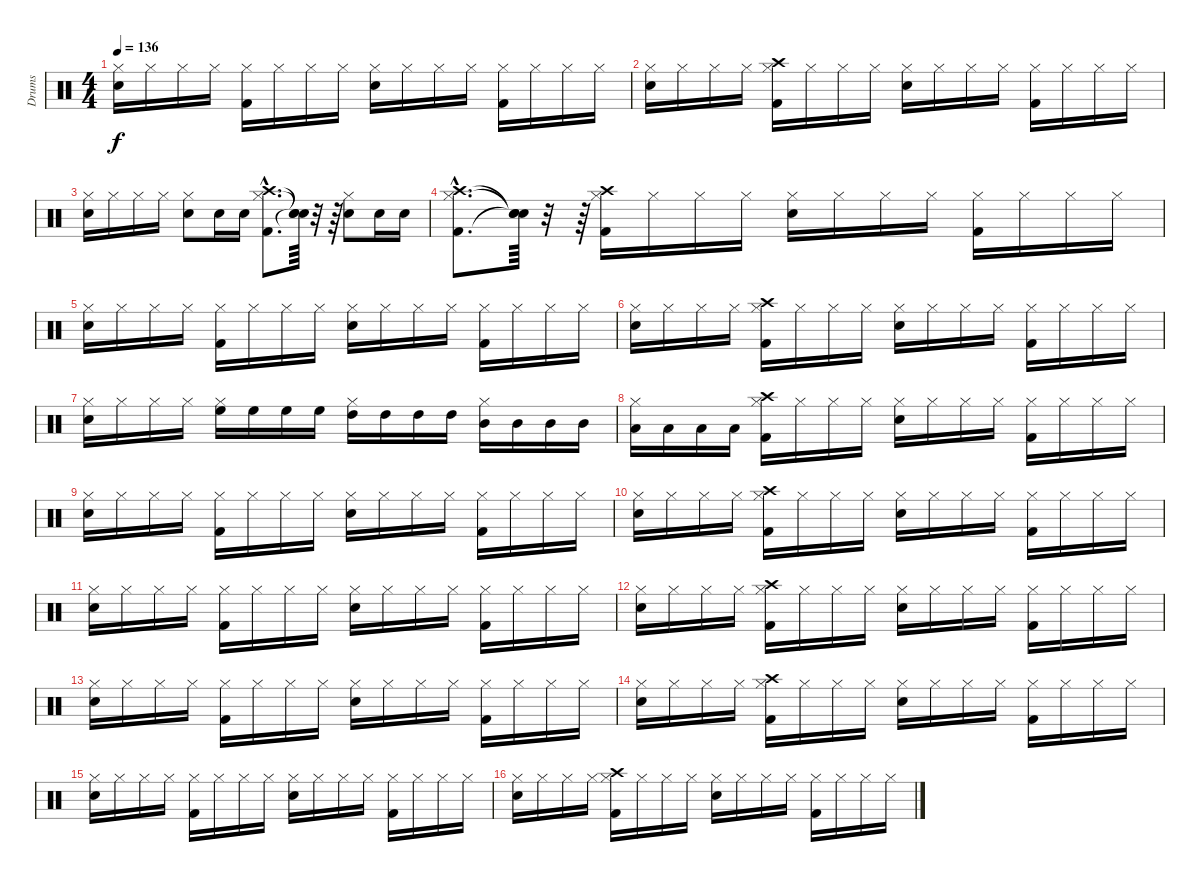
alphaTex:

\track ("Drums" "Drums") {instrument percussion}
\staff {score}
\articulation defaults
\ts (4 4)
\tempo 136
\clef neutral
\ks c
("Snare (hit) 2" "Hi-Hat (closed)").16{dy f} "Hi-Hat (closed)".16 "Hi-Hat (closed)".16 "Hi-Hat (closed)".16 ("Kick (hit) 2" "Hi-Hat (closed)").16 "Hi-Hat (closed)".16 "Hi-Hat (closed)".16 "Hi-Hat (closed)".16 ("Snare (hit) 2" "Hi-Hat (closed)").16 "Hi-Hat (closed)".16 "Hi-Hat (closed)".16 "Hi-Hat (closed)".16 ("Kick (hit) 2" "Hi-Hat (closed)").16 "Hi-Hat (closed)".16 "Hi-Hat (closed)".16 "Hi-Hat (closed)".16 |
("Snare (hit) 2" "Hi-Hat (closed)").16 "Hi-Hat (closed)".16 "Hi-Hat (closed)".16 "Hi-Hat (closed)".16 ("Kick (hit) 2" "Hi-Hat (closed)" "Crash high (hit)").16 "Hi-Hat (closed)".16 "Hi-Hat (closed)".16 "Hi-Hat (closed)".16 ("Snare (hit) 2" "Hi-Hat (closed)").16 "Hi-Hat (closed)".16 "Hi-Hat (closed)".16 "Hi-Hat (closed)".16 ("Kick (hit) 2" "Hi-Hat (closed)").16 "Hi-Hat (closed)".16 "Hi-Hat (closed)".16 "Hi-Hat (closed)".16 |
("Snare (hit) 2" "Hi-Hat (closed)").16 "Hi-Hat (closed)".16 "Hi-Hat (closed)".16 "Hi-Hat (closed)".16 ("Snare (hit) 2" "Hi-Hat (closed)").8 "Snare (hit) 2".16 "Snare (hit) 2".16 ("Kick (hit) 2"{hac} "Hi-Hat (closed)"{hac} "Crash high (hit)"{hac}).8{d} ("Snare (hit)"{t} "Snare (hit)"{t} "Snare (hit)"{t}).64 r.32 r.64 ("Snare (hit) 2" "Hi-Hat (closed)").8 "Snare (hit) 2".16 "Snare (hit) 2".16 |
("Kick (hit) 2"{hac} "Hi-Hat (closed)"{hac} "Crash high (hit)"{hac}).8{d} ("Snare (hit)"{t} "Snare (hit)"{t} "Snare (hit)"{t}).64 r.32 r.64 ("Kick (hit) 2" "Hi-Hat (closed)" "Crash high (hit)").16 "Hi-Hat (closed)".16 "Hi-Hat (closed)".16 "Hi-Hat (closed)".16 ("Snare (hit) 2" "Hi-Hat (closed)").16 "Hi-Hat (closed)".16 "Hi-Hat (closed)".16 "Hi-Hat (closed)".16 ("Kick (hit) 2" "Hi-Hat (closed)").16 "Hi-Hat (closed)".16 "Hi-Hat (closed)".16 "Hi-Hat (closed)".16 |
("Snare (hit) 2" "Hi-Hat (closed)").16 "Hi-Hat (closed)".16 "Hi-Hat (closed)".16 "Hi-Hat (closed)".16 ("Kick (hit) 2" "Hi-Hat (closed)").16 "Hi-Hat (closed)".16 "Hi-Hat (closed)".16 "Hi-Hat (closed)".16 ("Snare (hit) 2" "Hi-Hat (closed)").16 "Hi-Hat (closed)".16 "Hi-Hat (closed)".16 "Hi-Hat (closed)".16 ("Kick (hit) 2" "Hi-Hat (closed)").16 "Hi-Hat (closed)".16 "Hi-Hat (closed)".16 "Hi-Hat (closed)".16 |
("Snare (hit) 2" "Hi-Hat (closed)").16 "Hi-Hat (closed)".16 "Hi-Hat (closed)".16 "Hi-Hat (closed)".16 ("Kick (hit) 2" "Hi-Hat (closed)" "Crash high (hit)").16 "Hi-Hat (closed)".16 "Hi-Hat (closed)".16 "Hi-Hat (closed)".16 ("Snare (hit) 2" "Hi-Hat (closed)").16 "Hi-Hat (closed)".16 "Hi-Hat (closed)".16 "Hi-Hat (closed)".16 ("Kick (hit) 2" "Hi-Hat (closed)").16 "Hi-Hat (closed)".16 "Hi-Hat (closed)".16 "Hi-Hat (closed)".16 |
("Snare (hit) 2" "Hi-Hat (closed)").16 "Hi-Hat (closed)".16 "Hi-Hat (closed)".16 "Hi-Hat (closed)".16 ("Hi-Hat (closed)" "High Floor Tom (hit)").16 "High Floor Tom (hit)".16 "High Floor Tom (hit)".16 "High Floor Tom (hit)".16 ("Hi-Hat (closed)" "High Tom (hit)").16 "High Tom (hit)".16 "High Tom (hit)".16 "High Tom (hit)".16 ("Hi-Hat (closed)" "Mid Tom (hit)").16 "Mid Tom (hit)".16 "Mid Tom (hit)".16 "Mid Tom (hit)".16 |
("Hi-Hat (closed)" "Low Tom (hit)").16 "Low Tom (hit)".16 "Low Tom (hit)".16 "Low Tom (hit)".16 ("Kick (hit) 2" "Hi-Hat (closed)" "Crash high (hit)").16 "Hi-Hat (closed)".16 "Hi-Hat (closed)".16 "Hi-Hat (closed)".16 ("Snare (hit) 2" "Hi-Hat (closed)").16 "Hi-Hat (closed)".16 "Hi-Hat (closed)".16 "Hi-Hat (closed)".16 ("Kick (hit) 2" "Hi-Hat (closed)").16 "Hi-Hat (closed)".16 "Hi-Hat (closed)".16 "Hi-Hat (closed)".16 |
("Snare (hit) 2" "Hi-Hat (closed)").16 "Hi-Hat (closed)".16 "Hi-Hat (closed)".16 "Hi-Hat (closed)".16 ("Kick (hit) 2" "Hi-Hat (closed)").16 "Hi-Hat (closed)".16 "Hi-Hat (closed)".16 "Hi-Hat (closed)".16 ("Snare (hit) 2" "Hi-Hat (closed)").16 "Hi-Hat (closed)".16 "Hi-Hat (closed)".16 "Hi-Hat (closed)".16 ("Kick (hit) 2" "Hi-Hat (closed)").16 "Hi-Hat (closed)".16 "Hi-Hat (closed)".16 "Hi-Hat (closed)".16 |
("Snare (hit) 2" "Hi-Hat (closed)").16 "Hi-Hat (closed)".16 "Hi-Hat (closed)".16 "Hi-Hat (closed)".16 ("Kick (hit) 2" "Hi-Hat (closed)" "Crash high (hit)").16 "Hi-Hat (closed)".16 "Hi-Hat (closed)".16 "Hi-Hat (closed)".16 ("Snare (hit) 2" "Hi-Hat (closed)").16 "Hi-Hat (closed)".16 "Hi-Hat (closed)".16 "Hi-Hat (closed)".16 ("Kick (hit) 2" "Hi-Hat (closed)").16 "Hi-Hat (closed)".16 "Hi-Hat (closed)".16 "Hi-Hat (closed)".16 |
("Snare (hit) 2" "Hi-Hat (closed)").16 "Hi-Hat (closed)".16 "Hi-Hat (closed)".16 "Hi-Hat (closed)".16 ("Kick (hit) 2" "Hi-Hat (closed)").16 "Hi-Hat (closed)".16 "Hi-Hat (closed)".16 "Hi-Hat (closed)".16 ("Snare (hit) 2" "Hi-Hat (closed)").16 "Hi-Hat (closed)".16 "Hi-Hat (closed)".16 "Hi-Hat (closed)".16 ("Kick (hit) 2" "Hi-Hat (closed)").16 "Hi-Hat (closed)".16 "Hi-Hat (closed)".16 "Hi-Hat (closed)".16 |
("Snare (hit) 2" "Hi-Hat (closed)").16 "Hi-Hat (closed)".16 "Hi-Hat (closed)".16 "Hi-Hat (closed)".16 ("Kick (hit) 2" "Hi-Hat (closed)" "Crash high (hit)").16 "Hi-Hat (closed)".16 "Hi-Hat (closed)".16 "Hi-Hat (closed)".16 ("Snare (hit) 2" "Hi-Hat (closed)").16 "Hi-Hat (closed)".16 "Hi-Hat (closed)".16 "Hi-Hat (closed)".16 ("Kick (hit) 2" "Hi-Hat (closed)").16 "Hi-Hat (closed)".16 "Hi-Hat (closed)".16 "Hi-Hat (closed)".16 |
("Snare (hit) 2" "Hi-Hat (closed)").16 "Hi-Hat (closed)".16 "Hi-Hat (closed)".16 "Hi-Hat (closed)".16 ("Kick (hit) 2" "Hi-Hat (closed)").16 "Hi-Hat (closed)".16 "Hi-Hat (closed)".16 "Hi-Hat (closed)".16 ("Snare (hit) 2" "Hi-Hat (closed)").16 "Hi-Hat (closed)".16 "Hi-Hat (closed)".16 "Hi-Hat (closed)".16 ("Kick (hit) 2" "Hi-Hat (closed)").16 "Hi-Hat (closed)".16 "Hi-Hat (closed)".16 "Hi-Hat (closed)".16 |
("Snare (hit) 2" "Hi-Hat (closed)").16 "Hi-Hat (closed)".16 "Hi-Hat (closed)".16 "Hi-Hat (closed)".16 ("Kick (hit) 2" "Hi-Hat (closed)" "Crash high (hit)").16 "Hi-Hat (closed)".16 "Hi-Hat (closed)".16 "Hi-Hat (closed)".16 ("Snare (hit) 2" "Hi-Hat (closed)").16 "Hi-Hat (closed)".16 "Hi-Hat (closed)".16 "Hi-Hat (closed)".16 ("Kick (hit) 2" "Hi-Hat (closed)").16 "Hi-Hat (closed)".16 "Hi-Hat (closed)".16 "Hi-Hat (closed)".16 |
("Snare (hit) 2" "Hi-Hat (closed)").16 "Hi-Hat (closed)".16 "Hi-Hat (closed)".16 "Hi-Hat (closed)".16 ("Kick (hit) 2" "Hi-Hat (closed)").16 "Hi-Hat (closed)".16 "Hi-Hat (closed)".16 "Hi-Hat (closed)".16 ("Snare (hit) 2" "Hi-Hat (closed)").16 "Hi-Hat (closed)".16 "Hi-Hat (closed)".16 "Hi-Hat (closed)".16 ("Kick (hit) 2" "Hi-Hat (closed)").16 "Hi-Hat (closed)".16 "Hi-Hat (closed)".16 "Hi-Hat (closed)".16 |
("Snare (hit) 2" "Hi-Hat (closed)").16 "Hi-Hat (closed)".16 "Hi-Hat (closed)".16 "Hi-Hat (closed)".16 ("Kick (hit) 2" "Hi-Hat (closed)" "Crash high (hit)").16 "Hi-Hat (closed)".16 "Hi-Hat (closed)".16 "Hi-Hat (closed)".16 ("Snare (hit) 2" "Hi-Hat (closed)").16 "Hi-Hat (closed)".16 "Hi-Hat (closed)".16 "Hi-Hat (closed)".16 ("Kick (hit) 2" "Hi-Hat (closed)").16 "Hi-Hat (closed)".16 "Hi-Hat (closed)".16 "Hi-Hat (closed)".16
